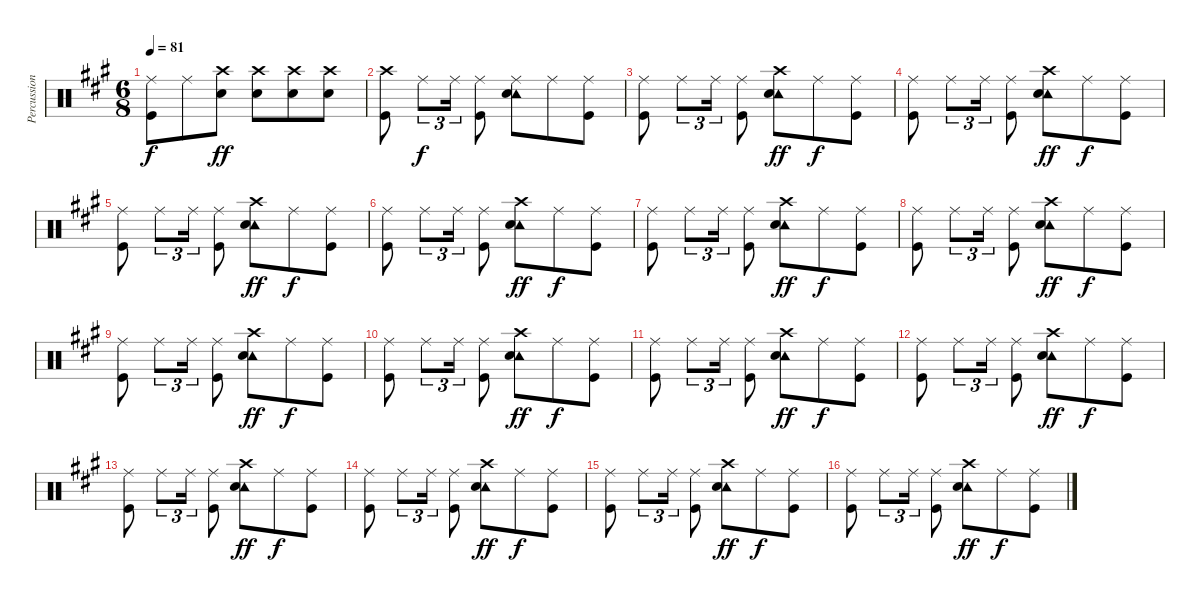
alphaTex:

\track ("Percussion" "Percussion") {instrument percussion}
\staff {score}
\articulation defaults
\ts (6 8)
\tempo 81
\clef neutral
\ks a
("Ride (middle)" "Kick (hit)").8{dy f} "Ride (middle)".8 ("Crash high (hit)" "Snare (hit) 2").8{dy ff} ("Crash high (hit)" "Snare (hit) 2").8 ("Crash high (hit)" "Snare (hit) 2").8 ("Crash high (hit)" "Snare (hit) 2").8 |
("Crash high (hit)" "Kick (hit)").8 "Ride (middle)".8{tu (3 2) dy f} "Ride (middle)".16{tu (3 2)} ("Ride (middle)" "Kick (hit)").8 ("Ride (middle)" "Tambourine (hit)" "Snare (hit) 2").8 "Ride (middle)".8 ("Ride (middle)" "Kick (hit)").8 |
("Ride (middle)" "Kick (hit)").8 "Ride (middle)".8{tu (3 2)} "Ride (middle)".16{tu (3 2)} ("Ride (middle)" "Kick (hit)").8 ("Crash high (hit)" "Tambourine (hit)" "Snare (hit) 2").8{dy ff} "Ride (middle)".8{dy f} ("Ride (middle)" "Kick (hit)").8 |
("Ride (middle)" "Kick (hit)").8 "Ride (middle)".8{tu (3 2)} "Ride (middle)".16{tu (3 2)} ("Ride (middle)" "Kick (hit)").8 ("Crash high (hit)" "Tambourine (hit)" "Snare (hit) 2").8{dy ff} "Ride (middle)".8{dy f} ("Ride (middle)" "Kick (hit)").8 |
("Ride (middle)" "Kick (hit)").8 "Ride (middle)".8{tu (3 2)} "Ride (middle)".16{tu (3 2)} ("Ride (middle)" "Kick (hit)").8 ("Crash high (hit)" "Tambourine (hit)" "Snare (hit) 2").8{dy ff} "Ride (middle)".8{dy f} ("Ride (middle)" "Kick (hit)").8 |
("Ride (middle)" "Kick (hit)").8 "Ride (middle)".8{tu (3 2)} "Ride (middle)".16{tu (3 2)} ("Ride (middle)" "Kick (hit)").8 ("Crash high (hit)" "Tambourine (hit)" "Snare (hit) 2").8{dy ff} "Ride (middle)".8{dy f} ("Ride (middle)" "Kick (hit)").8 |
("Ride (middle)" "Kick (hit)").8 "Ride (middle)".8{tu (3 2)} "Ride (middle)".16{tu (3 2)} ("Ride (middle)" "Kick (hit)").8 ("Crash high (hit)" "Tambourine (hit)" "Snare (hit) 2").8{dy ff} "Ride (middle)".8{dy f} ("Ride (middle)" "Kick (hit)").8 |
("Ride (middle)" "Kick (hit)").8 "Ride (middle)".8{tu (3 2)} "Ride (middle)".16{tu (3 2)} ("Ride (middle)" "Kick (hit)").8 ("Crash high (hit)" "Tambourine (hit)" "Snare (hit) 2").8{dy ff} "Ride (middle)".8{dy f} ("Ride (middle)" "Kick (hit)").8 |
("Ride (middle)" "Kick (hit)").8 "Ride (middle)".8{tu (3 2)} "Ride (middle)".16{tu (3 2)} ("Ride (middle)" "Kick (hit)").8 ("Crash high (hit)" "Tambourine (hit)" "Snare (hit) 2").8{dy ff} "Ride (middle)".8{dy f} ("Ride (middle)" "Kick (hit)").8 |
("Ride (middle)" "Kick (hit)").8 "Ride (middle)".8{tu (3 2)} "Ride (middle)".16{tu (3 2)} ("Ride (middle)" "Kick (hit)").8 ("Crash high (hit)" "Tambourine (hit)" "Snare (hit) 2").8{dy ff} "Ride (middle)".8{dy f} ("Ride (middle)" "Kick (hit)").8 |
("Ride (middle)" "Kick (hit)").8 "Ride (middle)".8{tu (3 2)} "Ride (middle)".16{tu (3 2)} ("Ride (middle)" "Kick (hit)").8 ("Crash high (hit)" "Tambourine (hit)" "Snare (hit) 2").8{dy ff} "Ride (middle)".8{dy f} ("Ride (middle)" "Kick (hit)").8 |
("Ride (middle)" "Kick (hit)").8 "Ride (middle)".8{tu (3 2)} "Ride (middle)".16{tu (3 2)} ("Ride (middle)" "Kick (hit)").8 ("Crash high (hit)" "Tambourine (hit)" "Snare (hit) 2").8{dy ff} "Ride (middle)".8{dy f} ("Ride (middle)" "Kick (hit)").8 |
("Ride (middle)" "Kick (hit)").8 "Ride (middle)".8{tu (3 2)} "Ride (middle)".16{tu (3 2)} ("Ride (middle)" "Kick (hit)").8 ("Crash high (hit)" "Tambourine (hit)" "Snare (hit) 2").8{dy ff} "Ride (middle)".8{dy f} ("Ride (middle)" "Kick (hit)").8 |
("Ride (middle)" "Kick (hit)").8 "Ride (middle)".8{tu (3 2)} "Ride (middle)".16{tu (3 2)} ("Ride (middle)" "Kick (hit)").8 ("Crash high (hit)" "Tambourine (hit)" "Snare (hit) 2").8{dy ff} "Ride (middle)".8{dy f} ("Ride (middle)" "Kick (hit)").8 |
("Ride (middle)" "Kick (hit)").8 "Ride (middle)".8{tu (3 2)} "Ride (middle)".16{tu (3 2)} ("Ride (middle)" "Kick (hit)").8 ("Crash high (hit)" "Tambourine (hit)" "Snare (hit) 2").8{dy ff} "Ride (middle)".8{dy f} ("Ride (middle)" "Kick (hit)").8 |
("Ride (middle)" "Kick (hit)").8 "Ride (middle)".8{tu (3 2)} "Ride (middle)".16{tu (3 2)} ("Ride (middle)" "Kick (hit)").8 ("Crash high (hit)" "Tambourine (hit)" "Snare (hit) 2").8{dy ff} "Ride (middle)".8{dy f} ("Ride (middle)" "Kick (hit)").8
